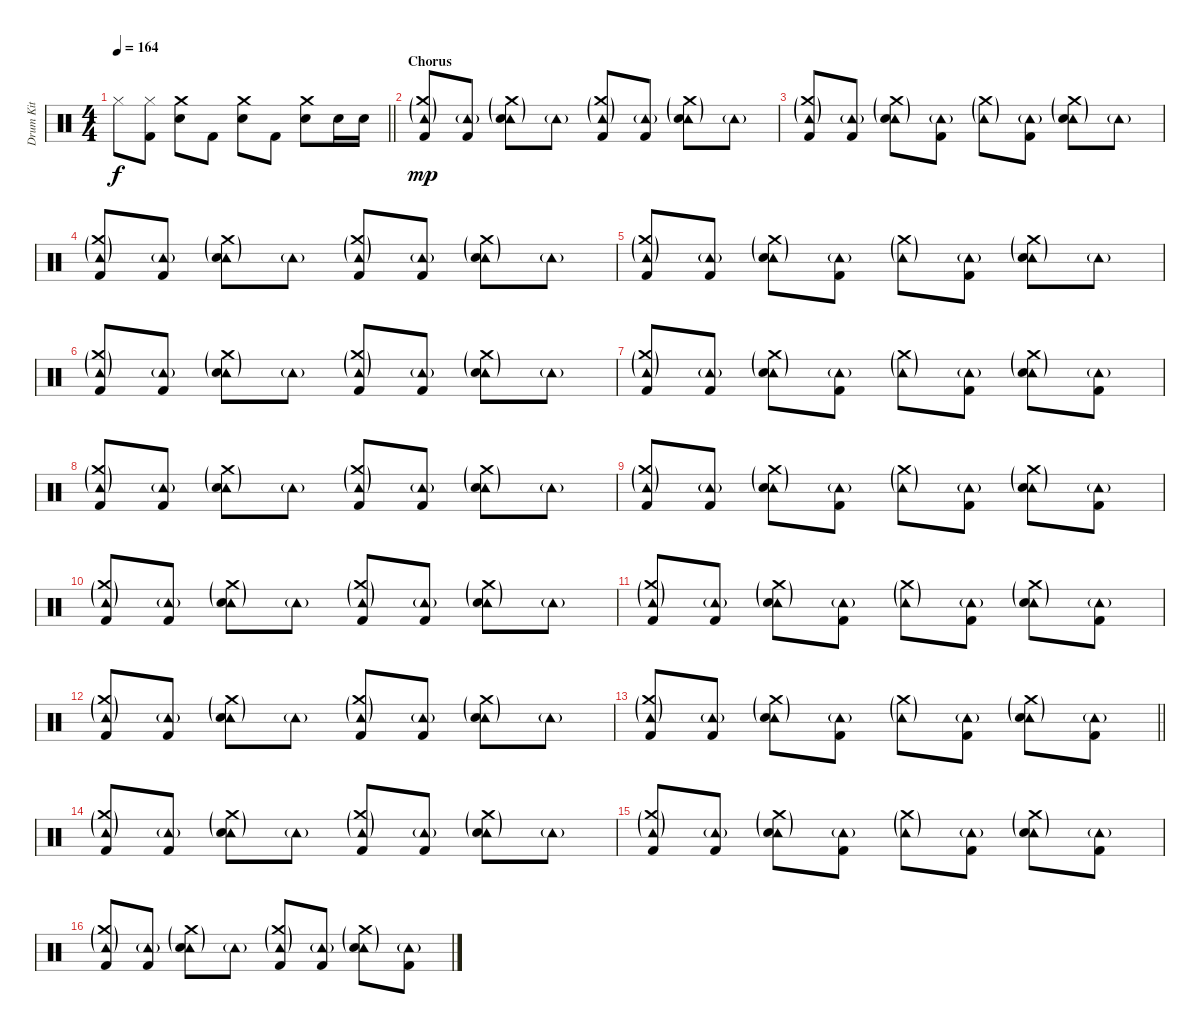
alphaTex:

\track ("Drum Kit" "Drum Kit") {instrument percussion}
\staff {score}
\articulation defaults
\ts (4 4)
\tempo 164
\clef neutral
\barLineRight lightlight
\ks c "Hi-Hat (closed)".8{dy f}
("Hi-Hat (closed)" "Kick (hit) 2").8 ("Crash medium (hit)" "Electric Snare (hit)").8 "Kick (hit) 2".8 ("Crash medium (hit)" "Electric Snare (hit)").8 "Kick (hit) 2".8 ("Crash medium (hit)" "Electric Snare (hit)").8 "Electric Snare (hit)".16 "Electric Snare (hit)".16 |
\section ("" "Chorus")
("Crash medium (hit)"{g} "Tambourine (hit)"{g} "Kick (hit) 2").8{dy mp} ("Tambourine (hit)"{g} "Kick (hit) 2").8 ("Crash medium (hit)"{g} "Tambourine (hit)"{g} "Electric Snare (hit)").8 "Tambourine (hit)"{g}.8 ("Crash medium (hit)"{g} "Tambourine (hit)"{g} "Kick (hit) 2").8 ("Tambourine (hit)"{g} "Kick (hit) 2").8 ("Crash medium (hit)"{g} "Tambourine (hit)"{g} "Electric Snare (hit)").8 "Tambourine (hit)"{g}.8 |
("Crash medium (hit)"{g} "Tambourine (hit)"{g} "Kick (hit) 2").8 ("Tambourine (hit)"{g} "Kick (hit) 2").8 ("Crash medium (hit)"{g} "Tambourine (hit)"{g} "Electric Snare (hit)").8 ("Tambourine (hit)"{g} "Kick (hit) 2").8 ("Crash medium (hit)"{g} "Tambourine (hit)"{g}).8 ("Tambourine (hit)"{g} "Kick (hit) 2").8 ("Crash medium (hit)"{g} "Tambourine (hit)"{g} "Electric Snare (hit)").8 "Tambourine (hit)"{g}.8 |
("Crash medium (hit)"{g} "Tambourine (hit)"{g} "Kick (hit) 2").8 ("Tambourine (hit)"{g} "Kick (hit) 2").8 ("Crash medium (hit)"{g} "Tambourine (hit)"{g} "Electric Snare (hit)").8 "Tambourine (hit)"{g}.8 ("Crash medium (hit)"{g} "Tambourine (hit)"{g} "Kick (hit) 2").8 ("Tambourine (hit)"{g} "Kick (hit) 2").8 ("Crash medium (hit)"{g} "Tambourine (hit)"{g} "Electric Snare (hit)").8 "Tambourine (hit)"{g}.8 |
("Crash medium (hit)"{g} "Tambourine (hit)"{g} "Kick (hit) 2").8 ("Tambourine (hit)"{g} "Kick (hit) 2").8 ("Crash medium (hit)"{g} "Tambourine (hit)"{g} "Electric Snare (hit)").8 ("Tambourine (hit)"{g} "Kick (hit) 2").8 ("Crash medium (hit)"{g} "Tambourine (hit)"{g}).8 ("Tambourine (hit)"{g} "Kick (hit) 2").8 ("Crash medium (hit)"{g} "Tambourine (hit)"{g} "Electric Snare (hit)").8 "Tambourine (hit)"{g}.8 |
("Crash medium (hit)"{g} "Tambourine (hit)"{g} "Kick (hit) 2").8 ("Tambourine (hit)"{g} "Kick (hit) 2").8 ("Crash medium (hit)"{g} "Tambourine (hit)"{g} "Electric Snare (hit)").8 "Tambourine (hit)"{g}.8 ("Crash medium (hit)"{g} "Tambourine (hit)"{g} "Kick (hit) 2").8 ("Tambourine (hit)"{g} "Kick (hit) 2").8 ("Crash medium (hit)"{g} "Tambourine (hit)"{g} "Electric Snare (hit)").8 "Tambourine (hit)"{g}.8 |
("Crash medium (hit)"{g} "Tambourine (hit)"{g} "Kick (hit) 2").8 ("Tambourine (hit)"{g} "Kick (hit) 2").8 ("Crash medium (hit)"{g} "Tambourine (hit)"{g} "Electric Snare (hit)").8 ("Tambourine (hit)"{g} "Kick (hit) 2").8 ("Crash medium (hit)"{g} "Tambourine (hit)"{g}).8 ("Tambourine (hit)"{g} "Kick (hit) 2").8 ("Crash medium (hit)"{g} "Tambourine (hit)"{g} "Electric Snare (hit)").8 ("Tambourine (hit)"{g} "Kick (hit) 2").8 |
("Crash medium (hit)"{g} "Tambourine (hit)"{g} "Kick (hit) 2").8 ("Tambourine (hit)"{g} "Kick (hit) 2").8 ("Crash medium (hit)"{g} "Tambourine (hit)"{g} "Electric Snare (hit)").8 "Tambourine (hit)"{g}.8 ("Crash medium (hit)"{g} "Tambourine (hit)"{g} "Kick (hit) 2").8 ("Tambourine (hit)"{g} "Kick (hit) 2").8 ("Crash medium (hit)"{g} "Tambourine (hit)"{g} "Electric Snare (hit)").8 "Tambourine (hit)"{g}.8 |
("Crash medium (hit)"{g} "Tambourine (hit)"{g} "Kick (hit) 2").8 ("Tambourine (hit)"{g} "Kick (hit) 2").8 ("Crash medium (hit)"{g} "Tambourine (hit)"{g} "Electric Snare (hit)").8 ("Tambourine (hit)"{g} "Kick (hit) 2").8 ("Crash medium (hit)"{g} "Tambourine (hit)"{g}).8 ("Tambourine (hit)"{g} "Kick (hit) 2").8 ("Crash medium (hit)"{g} "Tambourine (hit)"{g} "Electric Snare (hit)").8 ("Tambourine (hit)"{g} "Kick (hit) 2").8 |
("Crash medium (hit)"{g} "Tambourine (hit)"{g} "Kick (hit) 2").8 ("Tambourine (hit)"{g} "Kick (hit) 2").8 ("Crash medium (hit)"{g} "Tambourine (hit)"{g} "Electric Snare (hit)").8 "Tambourine (hit)"{g}.8 ("Crash medium (hit)"{g} "Tambourine (hit)"{g} "Kick (hit) 2").8 ("Tambourine (hit)"{g} "Kick (hit) 2").8 ("Crash medium (hit)"{g} "Tambourine (hit)"{g} "Electric Snare (hit)").8 "Tambourine (hit)"{g}.8 |
("Crash medium (hit)"{g} "Tambourine (hit)"{g} "Kick (hit) 2").8 ("Tambourine (hit)"{g} "Kick (hit) 2").8 ("Crash medium (hit)"{g} "Tambourine (hit)"{g} "Electric Snare (hit)").8 ("Tambourine (hit)"{g} "Kick (hit) 2").8 ("Crash medium (hit)"{g} "Tambourine (hit)"{g}).8 ("Tambourine (hit)"{g} "Kick (hit) 2").8 ("Crash medium (hit)"{g} "Tambourine (hit)"{g} "Electric Snare (hit)").8 ("Tambourine (hit)"{g} "Kick (hit) 2").8 |
("Crash medium (hit)"{g} "Tambourine (hit)"{g} "Kick (hit) 2").8 ("Tambourine (hit)"{g} "Kick (hit) 2").8 ("Crash medium (hit)"{g} "Tambourine (hit)"{g} "Electric Snare (hit)").8 "Tambourine (hit)"{g}.8 ("Crash medium (hit)"{g} "Tambourine (hit)"{g} "Kick (hit) 2").8 ("Tambourine (hit)"{g} "Kick (hit) 2").8 ("Crash medium (hit)"{g} "Tambourine (hit)"{g} "Electric Snare (hit)").8 "Tambourine (hit)"{g}.8 |
\barLineRight lightlight
("Crash medium (hit)"{g} "Tambourine (hit)"{g} "Kick (hit) 2").8 ("Tambourine (hit)"{g} "Kick (hit) 2").8 ("Crash medium (hit)"{g} "Tambourine (hit)"{g} "Electric Snare (hit)").8 ("Tambourine (hit)"{g} "Kick (hit) 2").8 ("Crash medium (hit)"{g} "Tambourine (hit)"{g}).8 ("Tambourine (hit)"{g} "Kick (hit) 2").8 ("Crash medium (hit)"{g} "Tambourine (hit)"{g} "Electric Snare (hit)").8 ("Tambourine (hit)"{g} "Kick (hit) 2").8 |
("Crash medium (hit)"{g} "Tambourine (hit)"{g} "Kick (hit) 2").8 ("Tambourine (hit)"{g} "Kick (hit) 2").8 ("Crash medium (hit)"{g} "Tambourine (hit)"{g} "Electric Snare (hit)").8 "Tambourine (hit)"{g}.8 ("Crash medium (hit)"{g} "Tambourine (hit)"{g} "Kick (hit) 2").8 ("Tambourine (hit)"{g} "Kick (hit) 2").8 ("Crash medium (hit)"{g} "Tambourine (hit)"{g} "Electric Snare (hit)").8 "Tambourine (hit)"{g}.8 |
("Crash medium (hit)"{g} "Tambourine (hit)"{g} "Kick (hit) 2").8 ("Tambourine (hit)"{g} "Kick (hit) 2").8 ("Crash medium (hit)"{g} "Tambourine (hit)"{g} "Electric Snare (hit)").8 ("Tambourine (hit)"{g} "Kick (hit) 2").8 ("Crash medium (hit)"{g} "Tambourine (hit)"{g}).8 ("Tambourine (hit)"{g} "Kick (hit) 2").8 ("Crash medium (hit)"{g} "Tambourine (hit)"{g} "Electric Snare (hit)").8 ("Tambourine (hit)"{g} "Kick (hit) 2").8 |
("Crash medium (hit)"{g} "Tambourine (hit)"{g} "Kick (hit) 2").8 ("Tambourine (hit)"{g} "Kick (hit) 2").8 ("Crash medium (hit)"{g} "Tambourine (hit)"{g} "Electric Snare (hit)").8 "Tambourine (hit)"{g}.8 ("Crash medium (hit)"{g} "Tambourine (hit)"{g} "Kick (hit) 2").8 ("Tambourine (hit)"{g} "Kick (hit) 2").8 ("Crash medium (hit)"{g} "Tambourine (hit)"{g} "Electric Snare (hit)").8 ("Tambourine (hit)"{g} "Kick (hit) 2").8
